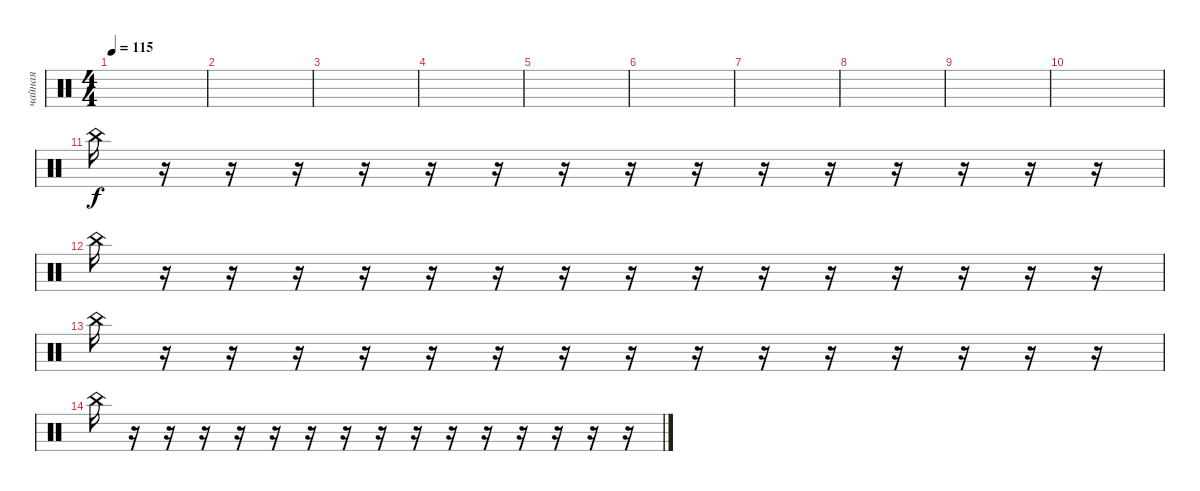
\track ("чайная" "чайная") {mute instrument percussion}
\staff {score}
\articulation defaults
\ts (4 4)
\tempo 115
\clef neutral
\ks c
|
|
|
|
|
|
|
|
|
|
"China (hit)".16 r.16 r.16 r.16 r.16 r.16 r.16 r.16 r.16 r.16 r.16 r.16 r.16 r.16 r.16 r.16 |
"China (hit)".16 r.16 r.16 r.16 r.16 r.16 r.16 r.16 r.16 r.16 r.16 r.16 r.16 r.16 r.16 r.16 |
"China (hit)".16 r.16 r.16 r.16 r.16 r.16 r.16 r.16 r.16 r.16 r.16 r.16 r.16 r.16 r.16 r.16 |
"China (hit)".16 r.16 r.16 r.16 r.16 r.16 r.16 r.16 r.16 r.16 r.16 r.16 r.16 r.16 r.16 r.16
